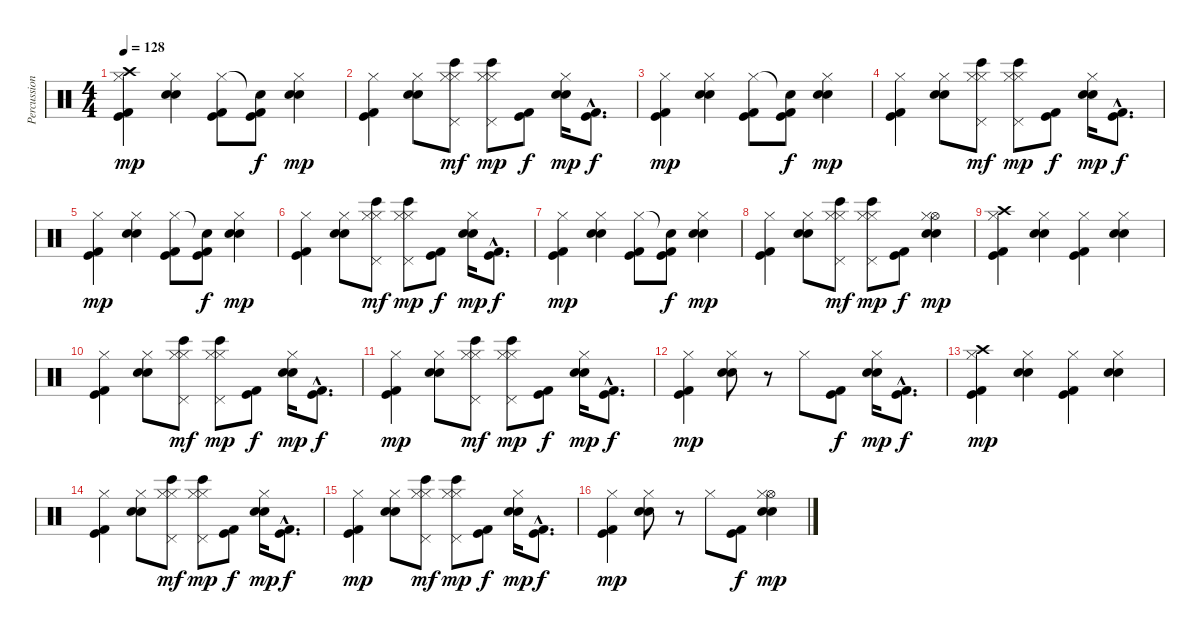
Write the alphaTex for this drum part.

\track ("Percussion" "Percussion") {instrument percussion}
\staff {score}
\articulation defaults
\ts (4 4)
\tempo 128
\clef neutral
\ks c
("Kick (hit) 2" "Kick (hit)" "Crash high (hit)" "Hi-Hat (closed)").4{dy mp} ("Electric Snare (hit)" "Snare (hit) 2" "Hi-Hat (closed)").4 ("Kick (hit) 2" "Kick (hit)" "Hi-Hat (closed)").8 ("Kick (hit) 2" "Kick (hit)" "Snare (hit)"{t}).8{dy f} ("Electric Snare (hit)" "Snare (hit) 2" "Hi-Hat (closed)").4{dy mp} |
("Kick (hit) 2" "Kick (hit)" "Hi-Hat (closed)").4 ("Electric Snare (hit)" "Snare (hit) 2" "Hi-Hat (closed)").8 ("Pedal Hi-Hat (hit)" "Hi-Hat (closed)" "Bongo High (hit)" "Hi-Hat (closed)").8{dy mf} ("Pedal Hi-Hat (hit)" "Hi-Hat (closed)" "Bongo High (hit)" "Hi-Hat (closed)").8{dy mp} ("Kick (hit) 2" "Kick (hit)").8{dy f} ("Electric Snare (hit)" "Snare (hit) 2" "Hi-Hat (closed)").16{dy mp} ("Kick (hit) 2"{hac} "Kick (hit)"{hac}).8{d dy f} |
("Kick (hit) 2" "Kick (hit)" "Hi-Hat (closed)").4{dy mp} ("Electric Snare (hit)" "Snare (hit) 2" "Hi-Hat (closed)").4 ("Kick (hit) 2" "Kick (hit)" "Hi-Hat (closed)").8 ("Kick (hit) 2" "Kick (hit)" "Snare (hit)"{t}).8{dy f} ("Electric Snare (hit)" "Snare (hit) 2" "Hi-Hat (closed)").4{dy mp} |
("Kick (hit) 2" "Kick (hit)" "Hi-Hat (closed)").4 ("Electric Snare (hit)" "Snare (hit) 2" "Hi-Hat (closed)").8 ("Pedal Hi-Hat (hit)" "Hi-Hat (closed)" "Bongo High (hit)" "Hi-Hat (closed)").8{dy mf} ("Pedal Hi-Hat (hit)" "Hi-Hat (closed)" "Bongo High (hit)" "Hi-Hat (closed)").8{dy mp} ("Kick (hit) 2" "Kick (hit)").8{dy f} ("Electric Snare (hit)" "Snare (hit) 2" "Hi-Hat (closed)").16{dy mp} ("Kick (hit) 2"{hac} "Kick (hit)"{hac}).8{d dy f} |
("Kick (hit) 2" "Kick (hit)" "Hi-Hat (closed)").4{dy mp} ("Electric Snare (hit)" "Snare (hit) 2" "Hi-Hat (closed)").4 ("Kick (hit) 2" "Kick (hit)" "Hi-Hat (closed)").8 ("Kick (hit) 2" "Kick (hit)" "Snare (hit)"{t}).8{dy f} ("Electric Snare (hit)" "Snare (hit) 2" "Hi-Hat (closed)").4{dy mp} |
("Kick (hit) 2" "Kick (hit)" "Hi-Hat (closed)").4 ("Electric Snare (hit)" "Snare (hit) 2" "Hi-Hat (closed)").8 ("Pedal Hi-Hat (hit)" "Hi-Hat (closed)" "Bongo High (hit)" "Hi-Hat (closed)").8{dy mf} ("Pedal Hi-Hat (hit)" "Hi-Hat (closed)" "Bongo High (hit)" "Hi-Hat (closed)").8{dy mp} ("Kick (hit) 2" "Kick (hit)").8{dy f} ("Electric Snare (hit)" "Snare (hit) 2" "Hi-Hat (closed)").16{dy mp} ("Kick (hit) 2"{hac} "Kick (hit)"{hac}).8{d dy f} |
("Kick (hit) 2" "Kick (hit)" "Hi-Hat (closed)").4{dy mp} ("Electric Snare (hit)" "Snare (hit) 2" "Hi-Hat (closed)").4 ("Kick (hit) 2" "Kick (hit)" "Hi-Hat (closed)").8 ("Kick (hit) 2" "Kick (hit)" "Snare (hit)"{t}).8{dy f} ("Electric Snare (hit)" "Snare (hit) 2" "Hi-Hat (closed)").4{dy mp} |
("Kick (hit) 2" "Kick (hit)" "Hi-Hat (closed)").4 ("Electric Snare (hit)" "Snare (hit) 2" "Hi-Hat (closed)").8 ("Pedal Hi-Hat (hit)" "Hi-Hat (closed)" "Bongo High (hit)" "Hi-Hat (closed)").8{dy mf} ("Pedal Hi-Hat (hit)" "Hi-Hat (closed)" "Bongo High (hit)" "Hi-Hat (closed)").8{dy mp} ("Kick (hit) 2" "Kick (hit)").8{dy f} ("Electric Snare (hit)" "Snare (hit) 2" "Hi-Hat (open)" "Hi-Hat (closed)").4{dy mp} |
("Kick (hit) 2" "Kick (hit)" "Crash high (hit)" "Hi-Hat (closed)").4 ("Electric Snare (hit)" "Snare (hit) 2" "Hi-Hat (closed)").4 ("Kick (hit) 2" "Kick (hit)" "Hi-Hat (closed)").4 ("Electric Snare (hit)" "Snare (hit) 2" "Hi-Hat (closed)").4 |
("Kick (hit) 2" "Kick (hit)" "Hi-Hat (closed)").4 ("Electric Snare (hit)" "Snare (hit) 2" "Hi-Hat (closed)").8 ("Pedal Hi-Hat (hit)" "Hi-Hat (closed)" "Bongo High (hit)" "Hi-Hat (closed)").8{dy mf} ("Pedal Hi-Hat (hit)" "Hi-Hat (closed)" "Bongo High (hit)" "Hi-Hat (closed)").8{dy mp} ("Kick (hit) 2" "Kick (hit)").8{dy f} ("Electric Snare (hit)" "Snare (hit) 2" "Hi-Hat (closed)").16{dy mp} ("Kick (hit) 2"{hac} "Kick (hit)"{hac}).8{d dy f} |
("Kick (hit) 2" "Kick (hit)" "Hi-Hat (closed)").4{dy mp} ("Electric Snare (hit)" "Snare (hit) 2" "Hi-Hat (closed)").8 ("Pedal Hi-Hat (hit)" "Hi-Hat (closed)" "Bongo High (hit)" "Hi-Hat (closed)").8{dy mf} ("Pedal Hi-Hat (hit)" "Hi-Hat (closed)" "Bongo High (hit)" "Hi-Hat (closed)").8{dy mp} ("Kick (hit) 2" "Kick (hit)").8{dy f} ("Electric Snare (hit)" "Snare (hit) 2" "Hi-Hat (closed)").16{dy mp} ("Kick (hit) 2"{hac} "Kick (hit)"{hac}).8{d dy f} |
("Kick (hit) 2" "Kick (hit)" "Hi-Hat (closed)").4{dy mp} ("Electric Snare (hit)" "Snare (hit) 2" "Hi-Hat (closed)").8 r.8 "Hi-Hat (closed)".8 ("Kick (hit) 2" "Kick (hit)").8{dy f} ("Electric Snare (hit)" "Snare (hit) 2" "Hi-Hat (closed)").16{dy mp} ("Kick (hit) 2"{hac} "Kick (hit)"{hac}).8{d dy f} |
("Kick (hit) 2" "Kick (hit)" "Crash high (hit)" "Hi-Hat (closed)").4{dy mp} ("Electric Snare (hit)" "Snare (hit) 2" "Hi-Hat (closed)").4 ("Kick (hit) 2" "Kick (hit)" "Hi-Hat (closed)").4 ("Electric Snare (hit)" "Snare (hit) 2" "Hi-Hat (closed)").4 |
("Kick (hit) 2" "Kick (hit)" "Hi-Hat (closed)").4 ("Electric Snare (hit)" "Snare (hit) 2" "Hi-Hat (closed)").8 ("Pedal Hi-Hat (hit)" "Hi-Hat (closed)" "Bongo High (hit)" "Hi-Hat (closed)").8{dy mf} ("Pedal Hi-Hat (hit)" "Hi-Hat (closed)" "Bongo High (hit)" "Hi-Hat (closed)").8{dy mp} ("Kick (hit) 2" "Kick (hit)").8{dy f} ("Electric Snare (hit)" "Snare (hit) 2" "Hi-Hat (closed)").16{dy mp} ("Kick (hit) 2"{hac} "Kick (hit)"{hac}).8{d dy f} |
("Kick (hit) 2" "Kick (hit)" "Hi-Hat (closed)").4{dy mp} ("Electric Snare (hit)" "Snare (hit) 2" "Hi-Hat (closed)").8 ("Pedal Hi-Hat (hit)" "Hi-Hat (closed)" "Bongo High (hit)" "Hi-Hat (closed)").8{dy mf} ("Pedal Hi-Hat (hit)" "Hi-Hat (closed)" "Bongo High (hit)" "Hi-Hat (closed)").8{dy mp} ("Kick (hit) 2" "Kick (hit)").8{dy f} ("Electric Snare (hit)" "Snare (hit) 2" "Hi-Hat (closed)").16{dy mp} ("Kick (hit) 2"{hac} "Kick (hit)"{hac}).8{d dy f} |
("Kick (hit) 2" "Kick (hit)" "Hi-Hat (closed)").4{dy mp} ("Electric Snare (hit)" "Snare (hit) 2" "Hi-Hat (closed)").8 r.8 "Hi-Hat (closed)".8 ("Kick (hit) 2" "Kick (hit)").8{dy f} ("Electric Snare (hit)" "Snare (hit) 2" "Hi-Hat (open)" "Hi-Hat (closed)").4{dy mp}
